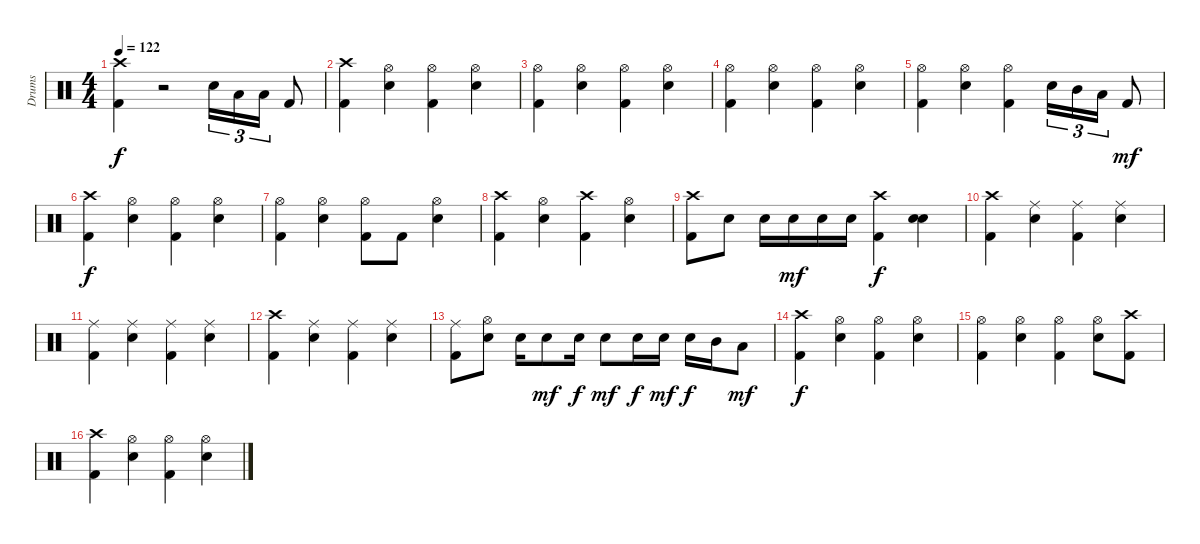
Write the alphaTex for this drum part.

\track ("Drums" "Drums") {instrument percussion}
\staff {score}
\articulation defaults
\ts (4 4)
\tempo 122
\clef neutral
\ks c
("Kick (hit) 2" "Crash high (hit)").4{dy f} r.2 "Electric Snare (hit)".16{tu (3 2)} "Low Tom (hit)".16{tu (3 2)} "Low Tom (hit)".16{tu (3 2)} "Kick (hit) 2".8 |
("Kick (hit) 2" "Crash high (hit)").4 ("Electric Snare (hit)" "Hi-Hat (open)").4 ("Kick (hit) 2" "Hi-Hat (open)").4 ("Electric Snare (hit)" "Hi-Hat (open)").4 |
("Kick (hit) 2" "Hi-Hat (open)").4 ("Electric Snare (hit)" "Hi-Hat (open)").4 ("Kick (hit) 2" "Hi-Hat (open)").4 ("Electric Snare (hit)" "Hi-Hat (open)").4 |
("Kick (hit) 2" "Hi-Hat (open)").4 ("Electric Snare (hit)" "Hi-Hat (open)").4 ("Kick (hit) 2" "Hi-Hat (open)").4 ("Electric Snare (hit)" "Hi-Hat (open)").4 |
("Kick (hit) 2" "Hi-Hat (open)").4 ("Electric Snare (hit)" "Hi-Hat (open)").4 ("Kick (hit) 2" "Hi-Hat (open)").4 "Electric Snare (hit)".16{tu (3 2)} "Mid Tom (hit)".16{tu (3 2)} "Low Tom (hit)".16{tu (3 2)} "Kick (hit) 2".8{dy mf} |
("Kick (hit) 2" "Crash high (hit)").4{dy f} ("Electric Snare (hit)" "Hi-Hat (open)").4 ("Kick (hit) 2" "Hi-Hat (open)").4 ("Electric Snare (hit)" "Hi-Hat (open)").4 |
("Kick (hit) 2" "Hi-Hat (open)").4 ("Electric Snare (hit)" "Hi-Hat (open)").4 ("Kick (hit) 2" "Hi-Hat (open)").8 "Kick (hit) 2".8 ("Electric Snare (hit)" "Hi-Hat (open)").4 |
("Kick (hit) 2" "Crash high (hit)").4 ("Electric Snare (hit)" "Hi-Hat (open)").4 ("Kick (hit) 2" "Crash high (hit)").4 ("Electric Snare (hit)" "Hi-Hat (open)").4 |
("Kick (hit) 2" "Crash high (hit)").8 "Electric Snare (hit)".8 "Electric Snare (hit)".16 "Electric Snare (hit)".16{dy mf} "Electric Snare (hit)".16 "Electric Snare (hit)".16 ("Kick (hit) 2" "Crash high (hit)").4{dy f} ("Electric Snare (hit)" "Electric Snare (hit)").4 |
("Kick (hit) 2" "Crash high (hit)").4 ("Electric Snare (hit)" "Ride (middle)").4 ("Kick (hit) 2" "Ride (middle)").4 ("Electric Snare (hit)" "Ride (middle)").4 |
("Kick (hit) 2" "Ride (middle)").4 ("Electric Snare (hit)" "Ride (middle)").4 ("Kick (hit) 2" "Ride (middle)").4 ("Electric Snare (hit)" "Ride (middle)").4 |
("Kick (hit) 2" "Crash high (hit)").4 ("Electric Snare (hit)" "Ride (middle)").4 ("Kick (hit) 2" "Ride (middle)").4 ("Electric Snare (hit)" "Ride (middle)").4 |
("Ride (middle)" "Kick (hit) 2").8 ("Hi-Hat (open)" "Electric Snare (hit)").8 "Electric Snare (hit)".16 "Electric Snare (hit)".8{dy mf} "Electric Snare (hit)".16{dy f} "Electric Snare (hit)".8{dy mf} "Electric Snare (hit)".16{dy f} "Electric Snare (hit)".16{dy mf} "Electric Snare (hit)".16{dy f} "Mid Tom (hit)".16 "Low Tom (hit)".8{dy mf} |
("Crash high (hit)" "Kick (hit) 2").4{dy f} ("Electric Snare (hit)" "Hi-Hat (open)").4 ("Kick (hit) 2" "Hi-Hat (open)").4 ("Electric Snare (hit)" "Hi-Hat (open)").4 |
("Kick (hit) 2" "Hi-Hat (open)").4 ("Electric Snare (hit)" "Hi-Hat (open)").4 ("Kick (hit) 2" "Hi-Hat (open)").4 ("Electric Snare (hit)" "Hi-Hat (open)").8 ("Crash high (hit)" "Kick (hit) 2").8 |
("Crash high (hit)" "Kick (hit) 2").4 ("Electric Snare (hit)" "Hi-Hat (open)").4 ("Kick (hit) 2" "Hi-Hat (open)").4 ("Electric Snare (hit)" "Hi-Hat (open)").4
